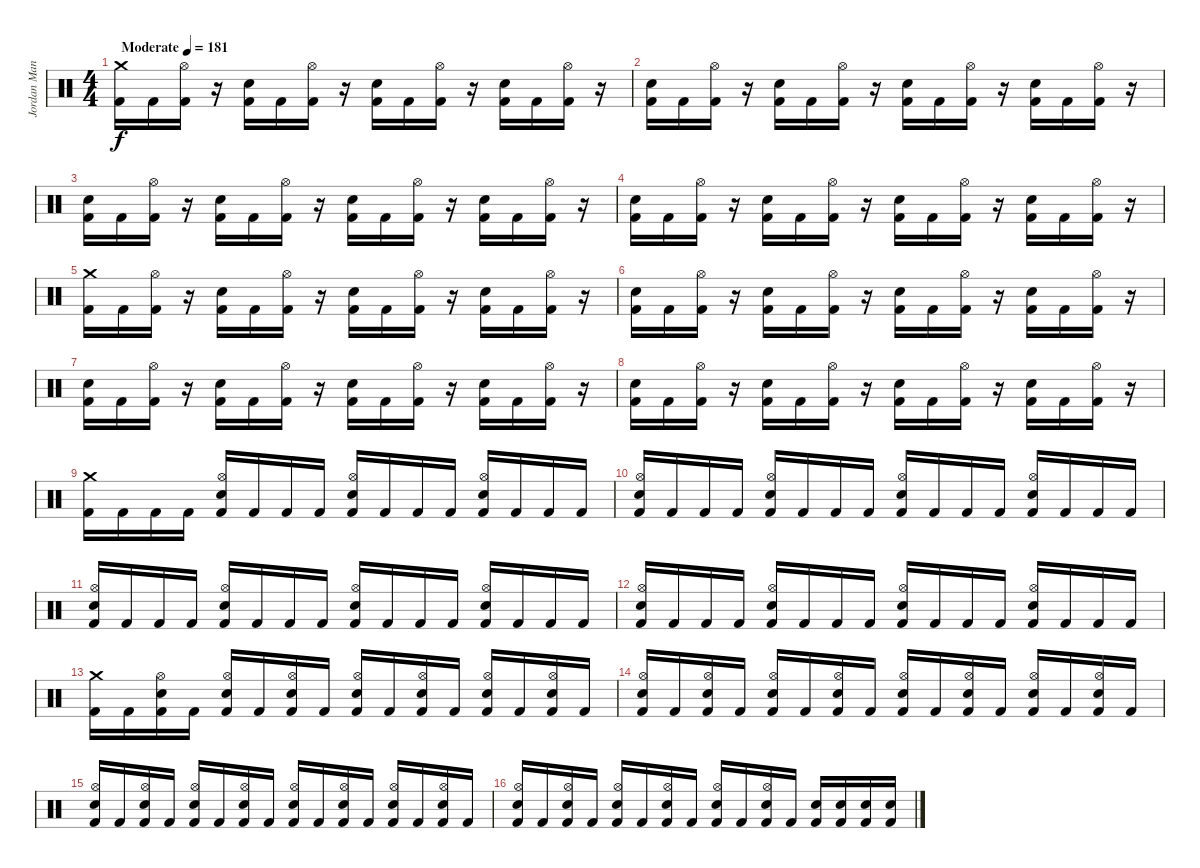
\track ("Jordan Mancino" "Jordan Man") {instrument percussion}
\staff {score}
\articulation defaults
\ts (4 4)
\tempo (181 "Moderate")
\clef neutral
\ks c
("Crash medium (hit)" "Kick (hit) 2").16{dy f} "Kick (hit) 2".16 ("Hi-Hat (open)" "Kick (hit) 2").16 r.16 ("Electric Snare (hit)" "Kick (hit) 2").16 "Kick (hit) 2".16 ("Hi-Hat (open)" "Kick (hit) 2").16 r.16 ("Electric Snare (hit)" "Kick (hit) 2").16 "Kick (hit) 2".16 ("Hi-Hat (open)" "Kick (hit) 2").16 r.16 ("Electric Snare (hit)" "Kick (hit) 2").16 "Kick (hit) 2".16 ("Hi-Hat (open)" "Kick (hit) 2").16 r.16 |
("Electric Snare (hit)" "Kick (hit) 2").16 "Kick (hit) 2".16 ("Hi-Hat (open)" "Kick (hit) 2").16 r.16 ("Electric Snare (hit)" "Kick (hit) 2").16 "Kick (hit) 2".16 ("Hi-Hat (open)" "Kick (hit) 2").16 r.16 ("Electric Snare (hit)" "Kick (hit) 2").16 "Kick (hit) 2".16 ("Hi-Hat (open)" "Kick (hit) 2").16 r.16 ("Electric Snare (hit)" "Kick (hit) 2").16 "Kick (hit) 2".16 ("Hi-Hat (open)" "Kick (hit) 2").16 r.16 |
("Electric Snare (hit)" "Kick (hit) 2").16 "Kick (hit) 2".16 ("Hi-Hat (open)" "Kick (hit) 2").16 r.16 ("Electric Snare (hit)" "Kick (hit) 2").16 "Kick (hit) 2".16 ("Hi-Hat (open)" "Kick (hit) 2").16 r.16 ("Electric Snare (hit)" "Kick (hit) 2").16 "Kick (hit) 2".16 ("Hi-Hat (open)" "Kick (hit) 2").16 r.16 ("Electric Snare (hit)" "Kick (hit) 2").16 "Kick (hit) 2".16 ("Hi-Hat (open)" "Kick (hit) 2").16 r.16 |
("Electric Snare (hit)" "Kick (hit) 2").16 "Kick (hit) 2".16 ("Hi-Hat (open)" "Kick (hit) 2").16 r.16 ("Electric Snare (hit)" "Kick (hit) 2").16 "Kick (hit) 2".16 ("Hi-Hat (open)" "Kick (hit) 2").16 r.16 ("Electric Snare (hit)" "Kick (hit) 2").16 "Kick (hit) 2".16 ("Hi-Hat (open)" "Kick (hit) 2").16 r.16 ("Electric Snare (hit)" "Kick (hit) 2").16 "Kick (hit) 2".16 ("Hi-Hat (open)" "Kick (hit) 2").16 r.16 |
("Crash medium (hit)" "Kick (hit) 2").16 "Kick (hit) 2".16 ("Hi-Hat (open)" "Kick (hit) 2").16 r.16 ("Electric Snare (hit)" "Kick (hit) 2").16 "Kick (hit) 2".16 ("Hi-Hat (open)" "Kick (hit) 2").16 r.16 ("Electric Snare (hit)" "Kick (hit) 2").16 "Kick (hit) 2".16 ("Hi-Hat (open)" "Kick (hit) 2").16 r.16 ("Electric Snare (hit)" "Kick (hit) 2").16 "Kick (hit) 2".16 ("Hi-Hat (open)" "Kick (hit) 2").16 r.16 |
("Electric Snare (hit)" "Kick (hit) 2").16 "Kick (hit) 2".16 ("Hi-Hat (open)" "Kick (hit) 2").16 r.16 ("Electric Snare (hit)" "Kick (hit) 2").16 "Kick (hit) 2".16 ("Hi-Hat (open)" "Kick (hit) 2").16 r.16 ("Electric Snare (hit)" "Kick (hit) 2").16 "Kick (hit) 2".16 ("Hi-Hat (open)" "Kick (hit) 2").16 r.16 ("Electric Snare (hit)" "Kick (hit) 2").16 "Kick (hit) 2".16 ("Hi-Hat (open)" "Kick (hit) 2").16 r.16 |
("Electric Snare (hit)" "Kick (hit) 2").16 "Kick (hit) 2".16 ("Hi-Hat (open)" "Kick (hit) 2").16 r.16 ("Electric Snare (hit)" "Kick (hit) 2").16 "Kick (hit) 2".16 ("Hi-Hat (open)" "Kick (hit) 2").16 r.16 ("Electric Snare (hit)" "Kick (hit) 2").16 "Kick (hit) 2".16 ("Hi-Hat (open)" "Kick (hit) 2").16 r.16 ("Electric Snare (hit)" "Kick (hit) 2").16 "Kick (hit) 2".16 ("Hi-Hat (open)" "Kick (hit) 2").16 r.16 |
("Electric Snare (hit)" "Kick (hit) 2").16 "Kick (hit) 2".16 ("Hi-Hat (open)" "Kick (hit) 2").16 r.16 ("Electric Snare (hit)" "Kick (hit) 2").16 "Kick (hit) 2".16 ("Hi-Hat (open)" "Kick (hit) 2").16 r.16 ("Electric Snare (hit)" "Kick (hit) 2").16 "Kick (hit) 2".16 ("Hi-Hat (open)" "Kick (hit) 2").16 r.16 ("Electric Snare (hit)" "Kick (hit) 2").16 "Kick (hit) 2".16 ("Hi-Hat (open)" "Kick (hit) 2").16 r.16 |
("Crash medium (hit)" "Kick (hit) 2").16 "Kick (hit) 2".16 "Kick (hit) 2".16 "Kick (hit) 2".16 ("Hi-Hat (open)" "Electric Snare (hit)" "Kick (hit) 2").16 "Kick (hit) 2".16 "Kick (hit) 2".16 "Kick (hit) 2".16 ("Hi-Hat (open)" "Electric Snare (hit)" "Kick (hit) 2").16 "Kick (hit) 2".16 "Kick (hit) 2".16 "Kick (hit) 2".16 ("Hi-Hat (open)" "Electric Snare (hit)" "Kick (hit) 2").16 "Kick (hit) 2".16 "Kick (hit) 2".16 "Kick (hit) 2".16 |
("Hi-Hat (open)" "Electric Snare (hit)" "Kick (hit) 2").16 "Kick (hit) 2".16 "Kick (hit) 2".16 "Kick (hit) 2".16 ("Hi-Hat (open)" "Electric Snare (hit)" "Kick (hit) 2").16 "Kick (hit) 2".16 "Kick (hit) 2".16 "Kick (hit) 2".16 ("Hi-Hat (open)" "Electric Snare (hit)" "Kick (hit) 2").16 "Kick (hit) 2".16 "Kick (hit) 2".16 "Kick (hit) 2".16 ("Hi-Hat (open)" "Electric Snare (hit)" "Kick (hit) 2").16 "Kick (hit) 2".16 "Kick (hit) 2".16 "Kick (hit) 2".16 |
("Hi-Hat (open)" "Electric Snare (hit)" "Kick (hit) 2").16 "Kick (hit) 2".16 "Kick (hit) 2".16 "Kick (hit) 2".16 ("Hi-Hat (open)" "Electric Snare (hit)" "Kick (hit) 2").16 "Kick (hit) 2".16 "Kick (hit) 2".16 "Kick (hit) 2".16 ("Hi-Hat (open)" "Electric Snare (hit)" "Kick (hit) 2").16 "Kick (hit) 2".16 "Kick (hit) 2".16 "Kick (hit) 2".16 ("Hi-Hat (open)" "Electric Snare (hit)" "Kick (hit) 2").16 "Kick (hit) 2".16 "Kick (hit) 2".16 "Kick (hit) 2".16 |
("Hi-Hat (open)" "Electric Snare (hit)" "Kick (hit) 2").16 "Kick (hit) 2".16 "Kick (hit) 2".16 "Kick (hit) 2".16 ("Hi-Hat (open)" "Electric Snare (hit)" "Kick (hit) 2").16 "Kick (hit) 2".16 "Kick (hit) 2".16 "Kick (hit) 2".16 ("Hi-Hat (open)" "Electric Snare (hit)" "Kick (hit) 2").16 "Kick (hit) 2".16 "Kick (hit) 2".16 "Kick (hit) 2".16 ("Hi-Hat (open)" "Electric Snare (hit)" "Kick (hit) 2").16 "Kick (hit) 2".16 "Kick (hit) 2".16 "Kick (hit) 2".16 |
("Crash medium (hit)" "Kick (hit) 2").16 "Kick (hit) 2".16 ("Hi-Hat (open)" "Electric Snare (hit)" "Kick (hit) 2").16 "Kick (hit) 2".16 ("Hi-Hat (open)" "Electric Snare (hit)" "Kick (hit) 2").16 "Kick (hit) 2".16 ("Hi-Hat (open)" "Electric Snare (hit)" "Kick (hit) 2").16 "Kick (hit) 2".16 ("Hi-Hat (open)" "Electric Snare (hit)" "Kick (hit) 2").16 "Kick (hit) 2".16 ("Hi-Hat (open)" "Electric Snare (hit)" "Kick (hit) 2").16 "Kick (hit) 2".16 ("Hi-Hat (open)" "Electric Snare (hit)" "Kick (hit) 2").16 "Kick (hit) 2".16 ("Hi-Hat (open)" "Electric Snare (hit)" "Kick (hit) 2").16 "Kick (hit) 2".16 |
("Hi-Hat (open)" "Electric Snare (hit)" "Kick (hit) 2").16 "Kick (hit) 2".16 ("Hi-Hat (open)" "Electric Snare (hit)" "Kick (hit) 2").16 "Kick (hit) 2".16 ("Hi-Hat (open)" "Electric Snare (hit)" "Kick (hit) 2").16 "Kick (hit) 2".16 ("Hi-Hat (open)" "Electric Snare (hit)" "Kick (hit) 2").16 "Kick (hit) 2".16 ("Hi-Hat (open)" "Electric Snare (hit)" "Kick (hit) 2").16 "Kick (hit) 2".16 ("Hi-Hat (open)" "Electric Snare (hit)" "Kick (hit) 2").16 "Kick (hit) 2".16 ("Hi-Hat (open)" "Electric Snare (hit)" "Kick (hit) 2").16 "Kick (hit) 2".16 ("Hi-Hat (open)" "Electric Snare (hit)" "Kick (hit) 2").16 "Kick (hit) 2".16 |
("Hi-Hat (open)" "Electric Snare (hit)" "Kick (hit) 2").16 "Kick (hit) 2".16 ("Hi-Hat (open)" "Electric Snare (hit)" "Kick (hit) 2").16 "Kick (hit) 2".16 ("Hi-Hat (open)" "Electric Snare (hit)" "Kick (hit) 2").16 "Kick (hit) 2".16 ("Hi-Hat (open)" "Electric Snare (hit)" "Kick (hit) 2").16 "Kick (hit) 2".16 ("Hi-Hat (open)" "Electric Snare (hit)" "Kick (hit) 2").16 "Kick (hit) 2".16 ("Hi-Hat (open)" "Electric Snare (hit)" "Kick (hit) 2").16 "Kick (hit) 2".16 ("Hi-Hat (open)" "Electric Snare (hit)" "Kick (hit) 2").16 "Kick (hit) 2".16 ("Hi-Hat (open)" "Electric Snare (hit)" "Kick (hit) 2").16 "Kick (hit) 2".16 |
("Hi-Hat (open)" "Electric Snare (hit)" "Kick (hit) 2").16 "Kick (hit) 2".16 ("Hi-Hat (open)" "Electric Snare (hit)" "Kick (hit) 2").16 "Kick (hit) 2".16 ("Hi-Hat (open)" "Electric Snare (hit)" "Kick (hit) 2").16 "Kick (hit) 2".16 ("Hi-Hat (open)" "Electric Snare (hit)" "Kick (hit) 2").16 "Kick (hit) 2".16 ("Hi-Hat (open)" "Electric Snare (hit)" "Kick (hit) 2").16 "Kick (hit) 2".16 ("Hi-Hat (open)" "Electric Snare (hit)" "Kick (hit) 2").16 "Kick (hit) 2".16 ("Electric Snare (hit)" "Kick (hit) 2").16 ("Electric Snare (hit)" "Kick (hit) 2").16 ("Electric Snare (hit)" "Kick (hit) 2").16 ("Electric Snare (hit)" "Kick (hit) 2").16
